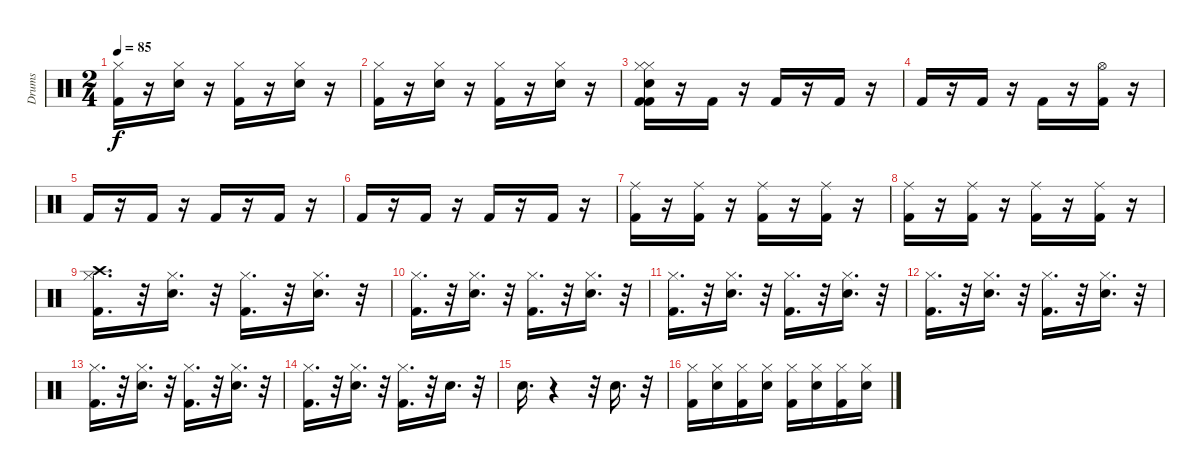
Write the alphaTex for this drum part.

\track ("Drums" "Drums") {instrument percussion}
\staff {score}
\articulation defaults
\ts (2 4)
\tempo 85
\clef neutral
\ks c
("Hi-Hat (closed)" "Kick (hit) 2").16{dy f} r.16 ("Hi-Hat (closed)" "Snare (hit) 2").16 r.16 ("Hi-Hat (closed)" "Kick (hit) 2").16 r.16 ("Snare (hit) 2" "Hi-Hat (closed)").16 r.16 |
("Hi-Hat (closed)" "Kick (hit) 2").16 r.16 ("Hi-Hat (closed)" "Snare (hit) 2").16 r.16 ("Hi-Hat (closed)" "Kick (hit) 2").16 r.16 ("Hi-Hat (closed)" "Snare (hit) 2").16 r.16 |
("Hi-Hat (closed)" "Kick (hit) 2" "Hi-Hat (closed)" "Kick (hit) 2" "Snare (hit) 2").16 r.16 "Kick (hit) 2".16 r.16 "Kick (hit) 2".16 r.16 "Kick (hit) 2".16 r.16 |
"Kick (hit) 2".16 r.16 "Kick (hit) 2".16 r.16 "Kick (hit) 2".16 r.16 ("Hi-Hat (open)" "Kick (hit) 2").16 r.16 |
"Kick (hit) 2".16 r.16 "Kick (hit) 2".16 r.16 "Kick (hit) 2".16 r.16 "Kick (hit) 2".16 r.16 |
"Kick (hit) 2".16 r.16 "Kick (hit) 2".16 r.16 "Kick (hit) 2".16 r.16 "Kick (hit) 2".16 r.16 |
("Ride (middle)" "Kick (hit) 2").16 r.16 ("Kick (hit) 2" "Ride (middle)").16 r.16 ("Ride (middle)" "Kick (hit) 2").16 r.16 ("Kick (hit) 2" "Ride (middle)").16 r.16 |
("Ride (middle)" "Kick (hit) 2").16 r.16 ("Ride (middle)" "Kick (hit) 2").16 r.16 ("Ride (middle)" "Kick (hit) 2").16 r.16 ("Kick (hit) 2" "Ride (middle)").16 r.16 |
("Hi-Hat (closed)" "Kick (hit) 2" "Crash high (hit)").16{d} r.32 ("Snare (hit) 2" "Hi-Hat (closed)").16{d} r.32 ("Hi-Hat (closed)" "Kick (hit) 2").16{d} r.32 ("Snare (hit) 2" "Hi-Hat (closed)").16{d} r.32 |
("Kick (hit) 2" "Hi-Hat (closed)").16{d} r.32 ("Snare (hit) 2" "Hi-Hat (closed)").16{d} r.32 ("Hi-Hat (closed)" "Kick (hit) 2").16{d} r.32 ("Snare (hit) 2" "Hi-Hat (closed)").16{d} r.32 |
("Hi-Hat (closed)" "Kick (hit) 2").16{d} r.32 ("Snare (hit) 2" "Hi-Hat (closed)").16{d} r.32 ("Hi-Hat (closed)" "Kick (hit) 2").16{d} r.32 ("Hi-Hat (closed)" "Snare (hit) 2").16{d} r.32 |
("Hi-Hat (closed)" "Kick (hit) 2").16{d} r.32 ("Hi-Hat (closed)" "Snare (hit) 2").16{d} r.32 ("Hi-Hat (closed)" "Kick (hit) 2").16{d} r.32 ("Snare (hit) 2" "Hi-Hat (closed)").16{d} r.32 |
("Hi-Hat (closed)" "Kick (hit) 2").16{d} r.32 ("Hi-Hat (closed)" "Snare (hit) 2").16{d} r.32 ("Kick (hit) 2" "Hi-Hat (closed)").16{d} r.32 ("Hi-Hat (closed)" "Snare (hit) 2").16{d} r.32 |
("Hi-Hat (closed)" "Kick (hit) 2").16{d} r.32 ("Hi-Hat (closed)" "Snare (hit) 2").16{d} r.32 ("Kick (hit) 2" "Hi-Hat (closed)").16{d} r.32 "Snare (hit) 2".16{d} r.32 |
"Snare (hit) 2".16{d} r.4 r.32 "Snare (hit) 2".16{d} r.32 |
("Kick (hit) 2" "Hi-Hat (closed)").16 ("Hi-Hat (closed)" "Snare (hit) 2").16 ("Hi-Hat (closed)" "Kick (hit) 2").16 ("Hi-Hat (closed)" "Snare (hit) 2").16 ("Kick (hit) 2" "Hi-Hat (closed)").16 ("Hi-Hat (closed)" "Snare (hit) 2").16 ("Kick (hit) 2" "Hi-Hat (closed)").16 ("Hi-Hat (closed)" "Snare (hit) 2").16
